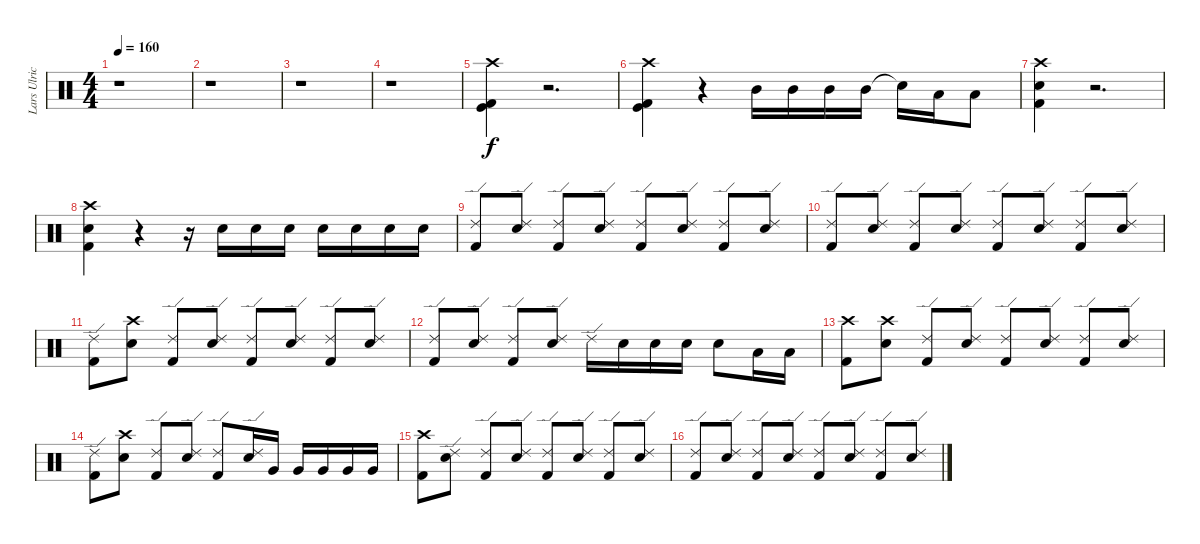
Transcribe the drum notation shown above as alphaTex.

\track ("Lars Ulrich" "Lars Ulric") {instrument percussion}
\staff {score}
\articulation defaults
\ts (4 4)
\tempo 160
\clef neutral
\ks c
r.1{dy f} |
r.1 |
r.1 |
r.1 |
("Crash high (hit)" "Kick (hit) 2" "Kick (hit)").4 r.2{d} |
("Crash high (hit)" "Kick (hit) 2" "Kick (hit)").4 r.4 "Mid Tom (hit)".16 "Mid Tom (hit)".16 "Mid Tom (hit)".16 "Mid Tom (hit)".16 "Snare (hit)"{t}.16 "Low Tom (hit)".16 "Low Tom (hit)".8 |
("Kick (hit) 2" "Snare (hit) 2" "Crash high (hit)").4 r.2{d} |
("Kick (hit) 2" "Snare (hit) 2" "Crash high (hit)").4 r.4 r.16 "Electric Snare (hit)".16 "Electric Snare (hit)".16 "Electric Snare (hit)".16 "Electric Snare (hit)".16 "Electric Snare (hit)".16 "Electric Snare (hit)".16 "Electric Snare (hit)".16 |
("Ride (edge) 2" "Kick (hit) 2").8 ("Ride (edge) 2" "Electric Snare (hit)").8 ("Ride (edge) 2" "Kick (hit) 2").8 ("Ride (edge) 2" "Electric Snare (hit)").8 ("Ride (edge) 2" "Kick (hit) 2").8 ("Ride (edge) 2" "Electric Snare (hit)").8 ("Ride (edge) 2" "Kick (hit) 2").8 ("Ride (edge) 2" "Electric Snare (hit)").8 |
("Ride (edge) 2" "Kick (hit) 2").8 ("Ride (edge) 2" "Electric Snare (hit)").8 ("Ride (edge) 2" "Kick (hit) 2").8 ("Ride (edge) 2" "Electric Snare (hit)").8 ("Ride (edge) 2" "Kick (hit) 2").8 ("Ride (edge) 2" "Electric Snare (hit)").8 ("Ride (edge) 2" "Kick (hit) 2").8 ("Ride (edge) 2" "Electric Snare (hit)").8 |
("Ride (edge) 2" "Kick (hit) 2").8 ("Crash high (hit)" "Electric Snare (hit)").8 ("Ride (edge) 2" "Kick (hit) 2").8 ("Ride (edge) 2" "Electric Snare (hit)").8 ("Ride (edge) 2" "Kick (hit) 2").8 ("Ride (edge) 2" "Electric Snare (hit)").8 ("Ride (edge) 2" "Kick (hit) 2").8 ("Ride (edge) 2" "Electric Snare (hit)").8 |
("Ride (edge) 2" "Kick (hit) 2").8 ("Ride (edge) 2" "Electric Snare (hit)").8 ("Ride (edge) 2" "Kick (hit) 2").8 ("Ride (edge) 2" "Electric Snare (hit)").8 "Ride (edge) 2".16 "Electric Snare (hit)".16 "Electric Snare (hit)".16 "Electric Snare (hit)".16 "Electric Snare (hit)".8 "Low Tom (hit)".16 "Low Tom (hit)".16 |
("Crash high (hit)" "Kick (hit) 2").8 ("Crash high (hit)" "Electric Snare (hit)").8 ("Ride (edge) 2" "Kick (hit) 2").8 ("Ride (edge) 2" "Electric Snare (hit)").8 ("Ride (edge) 2" "Kick (hit) 2").8 ("Ride (edge) 2" "Electric Snare (hit)").8 ("Ride (edge) 2" "Kick (hit) 2").8 ("Ride (edge) 2" "Electric Snare (hit)").8 |
("Ride (edge) 2" "Kick (hit) 2").8 ("Crash high (hit)" "Electric Snare (hit)").8 ("Ride (edge) 2" "Kick (hit) 2").8 ("Ride (edge) 2" "Electric Snare (hit)").8 ("Ride (edge) 2" "Kick (hit) 2").8 ("Ride (edge) 2" "Electric Snare (hit)").16 "Very Low Tom (hit)".16 "Very Low Tom (hit)".16 "Very Low Tom (hit)".16 "Very Low Tom (hit)".16 "Very Low Tom (hit)".16 |
("Crash high (hit)" "Kick (hit) 2").8 ("Ride (edge) 2" "Electric Snare (hit)").8 ("Ride (edge) 2" "Kick (hit) 2").8 ("Ride (edge) 2" "Electric Snare (hit)").8 ("Ride (edge) 2" "Kick (hit) 2").8 ("Ride (edge) 2" "Electric Snare (hit)").8 ("Ride (edge) 2" "Kick (hit) 2").8 ("Ride (edge) 2" "Electric Snare (hit)").8 |
("Ride (edge) 2" "Kick (hit) 2").8 ("Ride (edge) 2" "Electric Snare (hit)").8 ("Ride (edge) 2" "Kick (hit) 2").8 ("Ride (edge) 2" "Electric Snare (hit)").8 ("Ride (edge) 2" "Kick (hit) 2").8 ("Ride (edge) 2" "Electric Snare (hit)").8 ("Ride (edge) 2" "Kick (hit) 2").8 ("Ride (edge) 2" "Electric Snare (hit)").8
